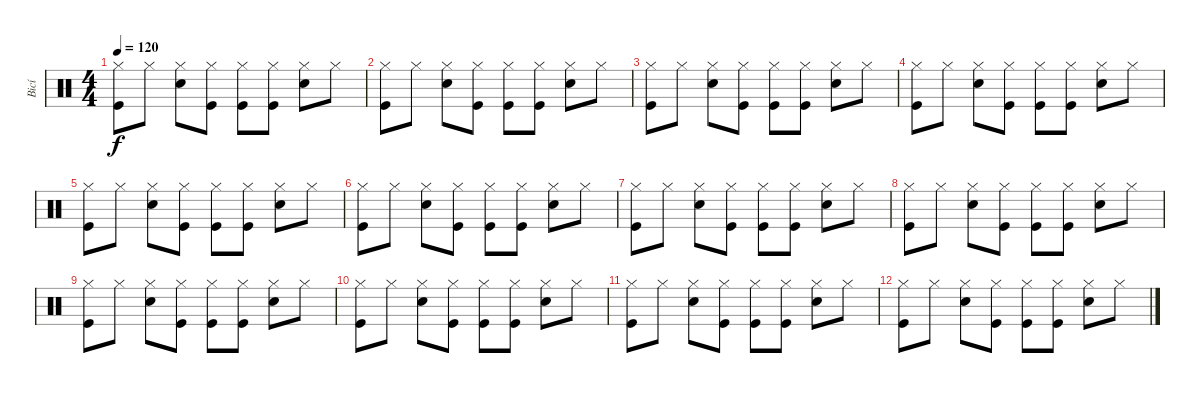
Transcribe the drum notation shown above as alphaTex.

\track ("Bicí" "Bicí") {instrument percussion}
\staff {score}
\articulation defaults
\ts (4 4)
\tempo 120
\clef neutral
\ks c
("Hi-Hat (closed)" "Kick (hit)").8{dy f} "Hi-Hat (closed)".8 ("Hi-Hat (closed)" "Snare (hit) 2").8 ("Hi-Hat (closed)" "Kick (hit)").8 ("Hi-Hat (closed)" "Kick (hit)").8 ("Hi-Hat (closed)" "Kick (hit)").8 ("Hi-Hat (closed)" "Snare (hit) 2").8 "Hi-Hat (closed)".8 |
("Hi-Hat (closed)" "Kick (hit)").8 "Hi-Hat (closed)".8 ("Hi-Hat (closed)" "Snare (hit) 2").8 ("Hi-Hat (closed)" "Kick (hit)").8 ("Hi-Hat (closed)" "Kick (hit)").8 ("Hi-Hat (closed)" "Kick (hit)").8 ("Hi-Hat (closed)" "Snare (hit) 2").8 "Hi-Hat (closed)".8 |
("Hi-Hat (closed)" "Kick (hit)").8 "Hi-Hat (closed)".8 ("Hi-Hat (closed)" "Snare (hit) 2").8 ("Hi-Hat (closed)" "Kick (hit)").8 ("Hi-Hat (closed)" "Kick (hit)").8 ("Hi-Hat (closed)" "Kick (hit)").8 ("Hi-Hat (closed)" "Snare (hit) 2").8 "Hi-Hat (closed)".8 |
("Hi-Hat (closed)" "Kick (hit)").8 "Hi-Hat (closed)".8 ("Hi-Hat (closed)" "Snare (hit) 2").8 ("Hi-Hat (closed)" "Kick (hit)").8 ("Hi-Hat (closed)" "Kick (hit)").8 ("Hi-Hat (closed)" "Kick (hit)").8 ("Hi-Hat (closed)" "Snare (hit) 2").8 "Hi-Hat (closed)".8 |
("Hi-Hat (closed)" "Kick (hit)").8 "Hi-Hat (closed)".8 ("Hi-Hat (closed)" "Snare (hit) 2").8 ("Hi-Hat (closed)" "Kick (hit)").8 ("Hi-Hat (closed)" "Kick (hit)").8 ("Hi-Hat (closed)" "Kick (hit)").8 ("Hi-Hat (closed)" "Snare (hit) 2").8 "Hi-Hat (closed)".8 |
("Hi-Hat (closed)" "Kick (hit)").8 "Hi-Hat (closed)".8 ("Hi-Hat (closed)" "Snare (hit) 2").8 ("Hi-Hat (closed)" "Kick (hit)").8 ("Hi-Hat (closed)" "Kick (hit)").8 ("Hi-Hat (closed)" "Kick (hit)").8 ("Hi-Hat (closed)" "Snare (hit) 2").8 "Hi-Hat (closed)".8 |
("Hi-Hat (closed)" "Kick (hit)").8 "Hi-Hat (closed)".8 ("Hi-Hat (closed)" "Snare (hit) 2").8 ("Hi-Hat (closed)" "Kick (hit)").8 ("Hi-Hat (closed)" "Kick (hit)").8 ("Hi-Hat (closed)" "Kick (hit)").8 ("Hi-Hat (closed)" "Snare (hit) 2").8 "Hi-Hat (closed)".8 |
("Hi-Hat (closed)" "Kick (hit)").8 "Hi-Hat (closed)".8 ("Hi-Hat (closed)" "Snare (hit) 2").8 ("Hi-Hat (closed)" "Kick (hit)").8 ("Hi-Hat (closed)" "Kick (hit)").8 ("Hi-Hat (closed)" "Kick (hit)").8 ("Hi-Hat (closed)" "Snare (hit) 2").8 "Hi-Hat (closed)".8 |
("Hi-Hat (closed)" "Kick (hit)").8 "Hi-Hat (closed)".8 ("Hi-Hat (closed)" "Snare (hit) 2").8 ("Hi-Hat (closed)" "Kick (hit)").8 ("Hi-Hat (closed)" "Kick (hit)").8 ("Hi-Hat (closed)" "Kick (hit)").8 ("Hi-Hat (closed)" "Snare (hit) 2").8 "Hi-Hat (closed)".8 |
("Hi-Hat (closed)" "Kick (hit)").8 "Hi-Hat (closed)".8 ("Hi-Hat (closed)" "Snare (hit) 2").8 ("Hi-Hat (closed)" "Kick (hit)").8 ("Hi-Hat (closed)" "Kick (hit)").8 ("Hi-Hat (closed)" "Kick (hit)").8 ("Hi-Hat (closed)" "Snare (hit) 2").8 "Hi-Hat (closed)".8 |
("Hi-Hat (closed)" "Kick (hit)").8 "Hi-Hat (closed)".8 ("Hi-Hat (closed)" "Snare (hit) 2").8 ("Hi-Hat (closed)" "Kick (hit)").8 ("Hi-Hat (closed)" "Kick (hit)").8 ("Hi-Hat (closed)" "Kick (hit)").8 ("Hi-Hat (closed)" "Snare (hit) 2").8 "Hi-Hat (closed)".8 |
("Hi-Hat (closed)" "Kick (hit)").8 "Hi-Hat (closed)".8 ("Hi-Hat (closed)" "Snare (hit) 2").8 ("Hi-Hat (closed)" "Kick (hit)").8 ("Hi-Hat (closed)" "Kick (hit)").8 ("Hi-Hat (closed)" "Kick (hit)").8 ("Hi-Hat (closed)" "Snare (hit) 2").8 "Hi-Hat (closed)".8
